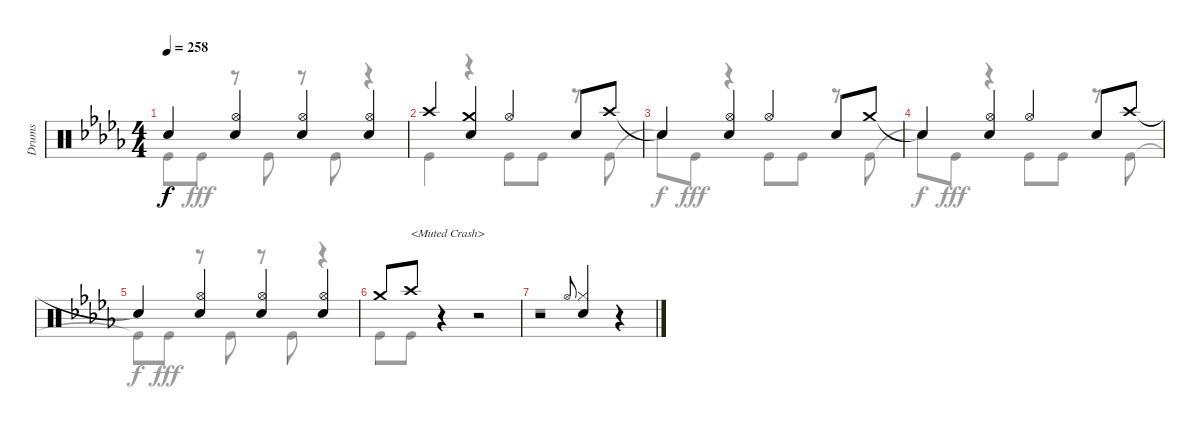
\track ("Drums" "Drums") {instrument percussion}
\staff {score}
\articulation defaults
\voice
\ts (4 4)
\tempo 258
\clef neutral
\ks db "Snare (hit)"{t}.4{dy f}
("Hi-Hat (open)" "Snare (hit) 2").4 ("Hi-Hat (open)" "Snare (hit) 2").4 ("Hi-Hat (open)" "Snare (hit) 2").4 |
"Crash high (hit)".4 ("Crash medium (hit)" "Snare (hit) 2").4 "Hi-Hat (open)".4 "Snare (hit) 2".8 "Crash high (hit)".8 |
"Snare (hit)"{t}.4 ("Hi-Hat (open)" "Snare (hit) 2").4 "Hi-Hat (open)".4 "Snare (hit) 2".8 "Crash medium (hit)".8 |
"Snare (hit)"{t}.4 ("Hi-Hat (open)" "Snare (hit) 2").4 "Hi-Hat (open)".4 "Snare (hit) 2".8 "Crash high (hit)".8 |
"Snare (hit)"{t}.4 ("Hi-Hat (open)" "Snare (hit) 2").4 ("Hi-Hat (open)" "Snare (hit) 2").4 ("Hi-Hat (open)" "Snare (hit) 2").4 |
"Crash medium (hit)".8 "Crash high (hit)".8{txt "<Muted Crash>"} r.4 r.2 |
r.2 "Hi-Hat (open)".8{gr onbeat} ("Hi-Hat (closed)" "Snare (hit) 2").4 r.4
\voice
\clef neutral
\ottava regular
\simile none
\ks db "Kick (hit)"{t}.8{dy f} "Kick (hit)".8{dy fff}
r.8 "Kick (hit)".8 r.8 "Kick (hit)".8 r.4 |
"Kick (hit)".4 r.4 "Kick (hit)".8 "Kick (hit)".8 r.8 "Kick (hit)".8 |
"Snare (hit)"{t}.8{dy f} "Kick (hit)".8{dy fff} r.4 "Kick (hit)".8 "Kick (hit)".8 r.8 "Kick (hit)".8 |
"Snare (hit)"{t}.8{dy f} "Kick (hit)".8{dy fff} r.4 "Kick (hit)".8 "Kick (hit)".8 r.8 "Kick (hit)".8 |
"Kick (hit)"{t}.8{dy f} "Kick (hit)".8{dy fff} r.8 "Kick (hit)".8 r.8 "Kick (hit)".8 r.4 |
"Kick (hit)".8 "Kick (hit)".8 r.4 r.2 |
r.1
